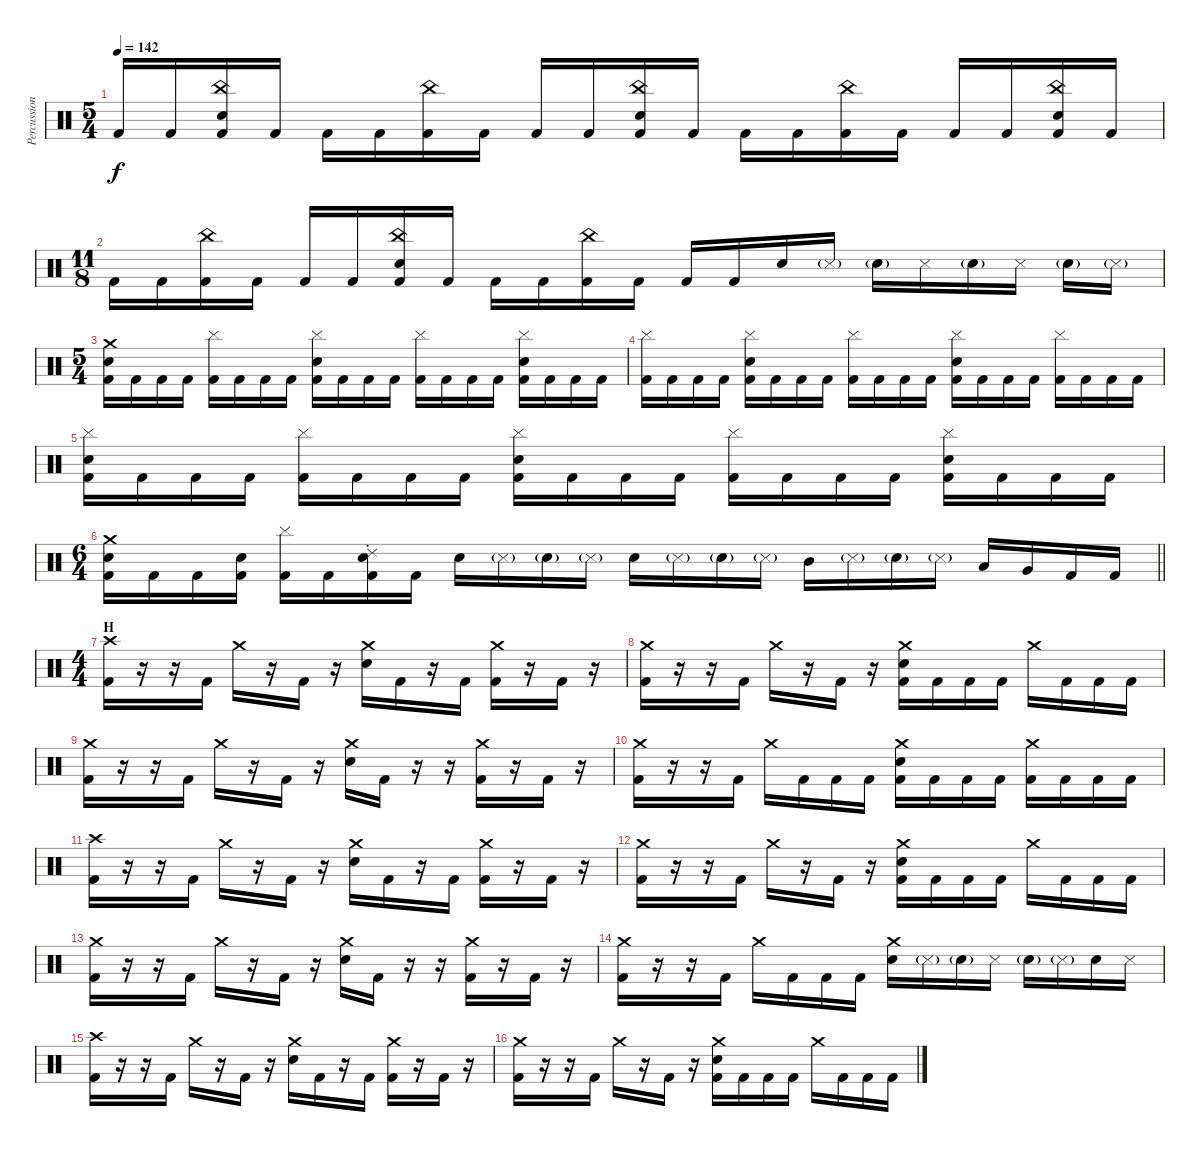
\track ("Percussion" "Percussion") {instrument percussion}
\staff {score}
\articulation defaults
\ts (5 4)
\tempo 142
\clef neutral
\ks c "Kick (hit) 2".16{dy f} "Kick (hit) 2".16
("China (hit)" "Snare (hit) 2" "Kick (hit) 2").16 "Kick (hit) 2".16 "Kick (hit) 2".16 "Kick (hit) 2".16 ("China (hit)" "Kick (hit) 2").16 "Kick (hit) 2".16 "Kick (hit) 2".16 "Kick (hit) 2".16 ("China (hit)" "Snare (hit) 2" "Kick (hit) 2").16 "Kick (hit) 2".16 "Kick (hit) 2".16 "Kick (hit) 2".16 ("China (hit)" "Kick (hit) 2").16 "Kick (hit) 2".16 "Kick (hit) 2".16 "Kick (hit) 2".16 ("China (hit)" "Snare (hit) 2" "Kick (hit) 2").16 "Kick (hit) 2".16 |
\ts (11 8)
"Kick (hit) 2".16 "Kick (hit) 2".16 ("China (hit)" "Kick (hit) 2").16 "Kick (hit) 2".16 "Kick (hit) 2".16 "Kick (hit) 2".16 ("China (hit)" "Snare (hit) 2" "Kick (hit) 2").16 "Kick (hit) 2".16 "Kick (hit) 2".16 "Kick (hit) 2".16 ("China (hit)" "Kick (hit) 2").16 "Kick (hit) 2".16 "Kick (hit) 2".16 "Kick (hit) 2".16 "Snare (hit) 2".16 "Metronome (hit)"{g}.16 "Snare (hit) 2"{g}.16 "Metronome (hit)".16 "Snare (hit) 2"{g}.16 "Metronome (hit)".16 "Snare (hit) 2"{g}.16 "Metronome (hit)"{g}.16 |
\ts (5 4)
("Crash medium (hit)" "Snare (hit) 2" "Kick (hit) 2").16 "Kick (hit) 2".16 "Kick (hit) 2".16 "Kick (hit) 2".16 ("Cymbal (hit)" "Kick (hit) 2").16 "Kick (hit) 2".16 "Kick (hit) 2".16 "Kick (hit) 2".16 ("Cymbal (hit)" "Snare (hit) 2" "Kick (hit) 2").16 "Kick (hit) 2".16 "Kick (hit) 2".16 "Kick (hit) 2".16 ("Cymbal (hit)" "Kick (hit) 2").16 "Kick (hit) 2".16 "Kick (hit) 2".16 "Kick (hit) 2".16 ("Cymbal (hit)" "Snare (hit) 2" "Kick (hit) 2").16 "Kick (hit) 2".16 "Kick (hit) 2".16 "Kick (hit) 2".16 |
("Cymbal (hit)" "Kick (hit) 2").16 "Kick (hit) 2".16 "Kick (hit) 2".16 "Kick (hit) 2".16 ("Cymbal (hit)" "Snare (hit) 2" "Kick (hit) 2").16 "Kick (hit) 2".16 "Kick (hit) 2".16 "Kick (hit) 2".16 ("Cymbal (hit)" "Kick (hit) 2").16 "Kick (hit) 2".16 "Kick (hit) 2".16 "Kick (hit) 2".16 ("Cymbal (hit)" "Snare (hit) 2" "Kick (hit) 2").16 "Kick (hit) 2".16 "Kick (hit) 2".16 "Kick (hit) 2".16 ("Cymbal (hit)" "Kick (hit) 2").16 "Kick (hit) 2".16 "Kick (hit) 2".16 "Kick (hit) 2".16 |
("Cymbal (hit)" "Snare (hit) 2" "Kick (hit) 2").16 "Kick (hit) 2".16 "Kick (hit) 2".16 "Kick (hit) 2".16 ("Cymbal (hit)" "Kick (hit) 2").16 "Kick (hit) 2".16 "Kick (hit) 2".16 "Kick (hit) 2".16 ("Cymbal (hit)" "Snare (hit) 2" "Kick (hit) 2").16 "Kick (hit) 2".16 "Kick (hit) 2".16 "Kick (hit) 2".16 ("Cymbal (hit)" "Kick (hit) 2").16 "Kick (hit) 2".16 "Kick (hit) 2".16 "Kick (hit) 2".16 ("Cymbal (hit)" "Snare (hit) 2" "Kick (hit) 2").16 "Kick (hit) 2".16 "Kick (hit) 2".16 "Kick (hit) 2".16 |
\ts (6 4)
\barLineRight lightlight
("Crash medium (hit)" "Snare (hit) 2" "Kick (hit) 2").16 "Kick (hit) 2".16 "Kick (hit) 2".16 ("Snare (hit) 2" "Kick (hit) 2").16 ("Cymbal (hit)" "Kick (hit) 2").16 "Kick (hit) 2".16 ("Ride (choke) 2" "Snare (hit) 2" "Kick (hit) 2").16 "Kick (hit) 2".16 "Snare (hit) 2".16 "Metronome (hit)"{g}.16 "Snare (hit) 2"{g}.16 "Metronome (hit)"{g}.16 "Snare (hit) 2".16 "Metronome (hit)"{g}.16 "Snare (hit) 2"{g}.16 "Metronome (hit)"{g}.16 "Mid Tom (hit)".16 "Metronome (hit)"{g}.16 "Snare (hit) 2"{g}.16 "Metronome (hit)"{g}.16 "Low Tom (hit)".16 "Very Low Tom (hit)".16 "Kick (hit) 2".16 "Kick (hit) 2".16 |
\ts (4 4)
\section ("" "H")
("Crash high (hit)" "Kick (hit) 2").16 r.16 r.16 "Kick (hit) 2".16 "Crash medium (hit)".16 r.16 "Kick (hit) 2".16 r.16 ("Crash medium (hit)" "Snare (hit) 2").16 "Kick (hit) 2".16 r.16 "Kick (hit) 2".16 ("Crash medium (hit)" "Kick (hit) 2").16 r.16 "Kick (hit) 2".16 r.16 |
("Crash medium (hit)" "Kick (hit) 2").16 r.16 r.16 "Kick (hit) 2".16 "Crash medium (hit)".16 r.16 "Kick (hit) 2".16 r.16 ("Crash medium (hit)" "Snare (hit) 2" "Kick (hit) 2").16 "Kick (hit) 2".16 "Kick (hit) 2".16 "Kick (hit) 2".16 "Crash medium (hit)".16 "Kick (hit) 2".16 "Kick (hit) 2".16 "Kick (hit) 2".16 |
("Crash medium (hit)" "Kick (hit) 2").16 r.16 r.16 "Kick (hit) 2".16 "Crash medium (hit)".16 r.16 "Kick (hit) 2".16 r.16 ("Crash medium (hit)" "Snare (hit) 2").16 "Kick (hit) 2".16 r.16 r.16 ("Crash medium (hit)" "Kick (hit) 2").16 r.16 "Kick (hit) 2".16 r.16 |
("Crash medium (hit)" "Kick (hit) 2").16 r.16 r.16 "Kick (hit) 2".16 "Crash medium (hit)".16 "Kick (hit) 2".16 "Kick (hit) 2".16 "Kick (hit) 2".16 ("Crash medium (hit)" "Snare (hit) 2" "Kick (hit) 2").16 "Kick (hit) 2".16 "Kick (hit) 2".16 "Kick (hit) 2".16 ("Crash medium (hit)" "Kick (hit) 2").16 "Kick (hit) 2".16 "Kick (hit) 2".16 "Kick (hit) 2".16 |
("Crash high (hit)" "Kick (hit) 2").16 r.16 r.16 "Kick (hit) 2".16 "Crash medium (hit)".16 r.16 "Kick (hit) 2".16 r.16 ("Crash medium (hit)" "Snare (hit) 2").16 "Kick (hit) 2".16 r.16 "Kick (hit) 2".16 ("Crash medium (hit)" "Kick (hit) 2").16 r.16 "Kick (hit) 2".16 r.16 |
("Crash medium (hit)" "Kick (hit) 2").16 r.16 r.16 "Kick (hit) 2".16 "Crash medium (hit)".16 r.16 "Kick (hit) 2".16 r.16 ("Crash medium (hit)" "Snare (hit) 2" "Kick (hit) 2").16 "Kick (hit) 2".16 "Kick (hit) 2".16 "Kick (hit) 2".16 "Crash medium (hit)".16 "Kick (hit) 2".16 "Kick (hit) 2".16 "Kick (hit) 2".16 |
("Crash medium (hit)" "Kick (hit) 2").16 r.16 r.16 "Kick (hit) 2".16 "Crash medium (hit)".16 r.16 "Kick (hit) 2".16 r.16 ("Crash medium (hit)" "Snare (hit) 2").16 "Kick (hit) 2".16 r.16 r.16 ("Crash medium (hit)" "Kick (hit) 2").16 r.16 "Kick (hit) 2".16 r.16 |
("Crash medium (hit)" "Kick (hit) 2").16 r.16 r.16 "Kick (hit) 2".16 "Crash medium (hit)".16 "Kick (hit) 2".16 "Kick (hit) 2".16 "Kick (hit) 2".16 ("Crash medium (hit)" "Snare (hit) 2").16 "Metronome (hit)"{g}.16 "Snare (hit) 2"{g}.16 "Metronome (hit)".16 "Snare (hit) 2"{g}.16 "Metronome (hit)"{g}.16 "Snare (hit) 2".16 "Metronome (hit)".16 |
("Crash high (hit)" "Kick (hit) 2").16 r.16 r.16 "Kick (hit) 2".16 "Crash medium (hit)".16 r.16 "Kick (hit) 2".16 r.16 ("Crash medium (hit)" "Snare (hit) 2").16 "Kick (hit) 2".16 r.16 "Kick (hit) 2".16 ("Crash medium (hit)" "Kick (hit) 2").16 r.16 "Kick (hit) 2".16 r.16 |
("Crash medium (hit)" "Kick (hit) 2").16 r.16 r.16 "Kick (hit) 2".16 "Crash medium (hit)".16 r.16 "Kick (hit) 2".16 r.16 ("Crash medium (hit)" "Snare (hit) 2" "Kick (hit) 2").16 "Kick (hit) 2".16 "Kick (hit) 2".16 "Kick (hit) 2".16 "Crash medium (hit)".16 "Kick (hit) 2".16 "Kick (hit) 2".16 "Kick (hit) 2".16
